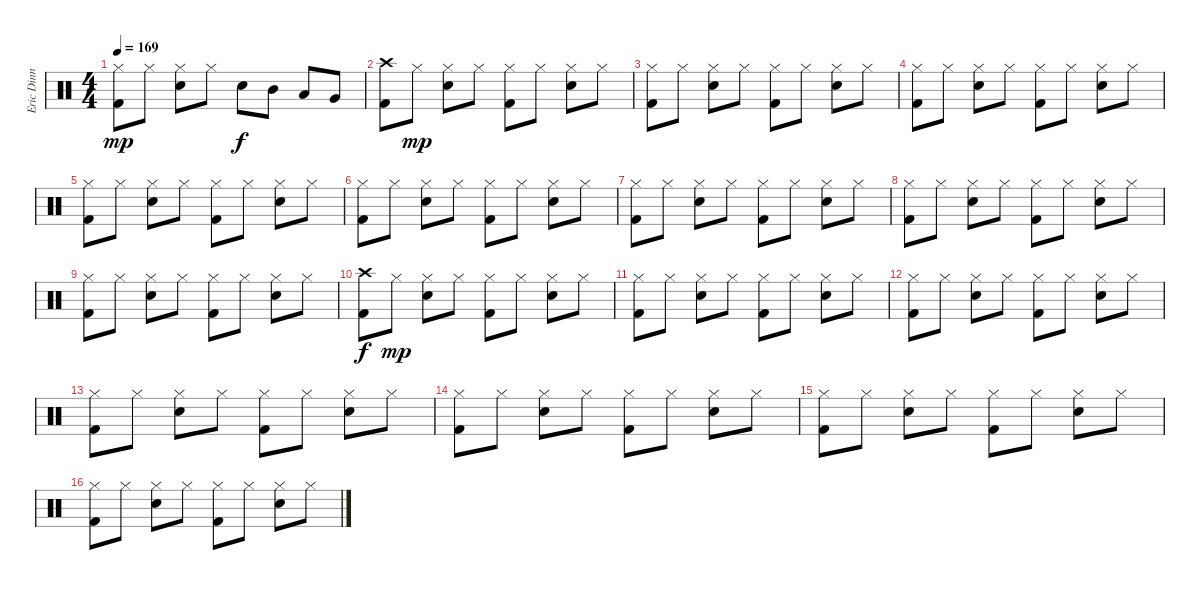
\track ("Eric Dinn" "Eric Dinn") {instrument percussion}
\staff {score}
\articulation defaults
\ts (4 4)
\tempo 169
\clef neutral
\ks c
("Hi-Hat (closed)" "Kick (hit) 2").8{dy mp} "Hi-Hat (closed)".8 ("Hi-Hat (closed)" "Snare (hit) 2").8 "Hi-Hat (closed)".8 "Snare (hit) 2".8{dy f} "Mid Tom (hit)".8 "Low Tom (hit)".8 "Very Low Tom (hit)".8 |
("Crash high (hit)" "Kick (hit) 2").8 "Hi-Hat (closed)".8{dy mp} ("Hi-Hat (closed)" "Snare (hit) 2").8 "Hi-Hat (closed)".8 ("Hi-Hat (closed)" "Kick (hit) 2").8 "Hi-Hat (closed)".8 ("Hi-Hat (closed)" "Snare (hit) 2").8 "Hi-Hat (closed)".8 |
("Hi-Hat (closed)" "Kick (hit) 2").8 "Hi-Hat (closed)".8 ("Hi-Hat (closed)" "Snare (hit) 2").8 "Hi-Hat (closed)".8 ("Hi-Hat (closed)" "Kick (hit) 2").8 "Hi-Hat (closed)".8 ("Hi-Hat (closed)" "Snare (hit) 2").8 "Hi-Hat (closed)".8 |
("Hi-Hat (closed)" "Kick (hit) 2").8 "Hi-Hat (closed)".8 ("Hi-Hat (closed)" "Snare (hit) 2").8 "Hi-Hat (closed)".8 ("Hi-Hat (closed)" "Kick (hit) 2").8 "Hi-Hat (closed)".8 ("Hi-Hat (closed)" "Snare (hit) 2").8 "Hi-Hat (closed)".8 |
("Hi-Hat (closed)" "Kick (hit) 2").8 "Hi-Hat (closed)".8 ("Hi-Hat (closed)" "Snare (hit) 2").8 "Hi-Hat (closed)".8 ("Hi-Hat (closed)" "Kick (hit) 2").8 "Hi-Hat (closed)".8 ("Hi-Hat (closed)" "Snare (hit) 2").8 "Hi-Hat (closed)".8 |
("Hi-Hat (closed)" "Kick (hit) 2").8 "Hi-Hat (closed)".8 ("Hi-Hat (closed)" "Snare (hit) 2").8 "Hi-Hat (closed)".8 ("Hi-Hat (closed)" "Kick (hit) 2").8 "Hi-Hat (closed)".8 ("Hi-Hat (closed)" "Snare (hit) 2").8 "Hi-Hat (closed)".8 |
("Hi-Hat (closed)" "Kick (hit) 2").8 "Hi-Hat (closed)".8 ("Hi-Hat (closed)" "Snare (hit) 2").8 "Hi-Hat (closed)".8 ("Hi-Hat (closed)" "Kick (hit) 2").8 "Hi-Hat (closed)".8 ("Hi-Hat (closed)" "Snare (hit) 2").8 "Hi-Hat (closed)".8 |
("Hi-Hat (closed)" "Kick (hit) 2").8 "Hi-Hat (closed)".8 ("Hi-Hat (closed)" "Snare (hit) 2").8 "Hi-Hat (closed)".8 ("Hi-Hat (closed)" "Kick (hit) 2").8 "Hi-Hat (closed)".8 ("Hi-Hat (closed)" "Snare (hit) 2").8 "Hi-Hat (closed)".8 |
("Hi-Hat (closed)" "Kick (hit) 2").8 "Hi-Hat (closed)".8 ("Hi-Hat (closed)" "Snare (hit) 2").8 "Hi-Hat (closed)".8 ("Hi-Hat (closed)" "Kick (hit) 2").8 "Hi-Hat (closed)".8 ("Hi-Hat (closed)" "Snare (hit) 2").8 "Hi-Hat (closed)".8 |
("Crash high (hit)" "Kick (hit) 2").8{dy f} "Hi-Hat (closed)".8{dy mp} ("Hi-Hat (closed)" "Snare (hit) 2").8 "Hi-Hat (closed)".8 ("Hi-Hat (closed)" "Kick (hit) 2").8 "Hi-Hat (closed)".8 ("Hi-Hat (closed)" "Snare (hit) 2").8 "Hi-Hat (closed)".8 |
("Hi-Hat (closed)" "Kick (hit) 2").8 "Hi-Hat (closed)".8 ("Hi-Hat (closed)" "Snare (hit) 2").8 "Hi-Hat (closed)".8 ("Hi-Hat (closed)" "Kick (hit) 2").8 "Hi-Hat (closed)".8 ("Hi-Hat (closed)" "Snare (hit) 2").8 "Hi-Hat (closed)".8 |
("Hi-Hat (closed)" "Kick (hit) 2").8 "Hi-Hat (closed)".8 ("Hi-Hat (closed)" "Snare (hit) 2").8 "Hi-Hat (closed)".8 ("Hi-Hat (closed)" "Kick (hit) 2").8 "Hi-Hat (closed)".8 ("Hi-Hat (closed)" "Snare (hit) 2").8 "Hi-Hat (closed)".8 |
("Hi-Hat (closed)" "Kick (hit) 2").8 "Hi-Hat (closed)".8 ("Hi-Hat (closed)" "Snare (hit) 2").8 "Hi-Hat (closed)".8 ("Hi-Hat (closed)" "Kick (hit) 2").8 "Hi-Hat (closed)".8 ("Hi-Hat (closed)" "Snare (hit) 2").8 "Hi-Hat (closed)".8 |
("Hi-Hat (closed)" "Kick (hit) 2").8 "Hi-Hat (closed)".8 ("Hi-Hat (closed)" "Snare (hit) 2").8 "Hi-Hat (closed)".8 ("Hi-Hat (closed)" "Kick (hit) 2").8 "Hi-Hat (closed)".8 ("Hi-Hat (closed)" "Snare (hit) 2").8 "Hi-Hat (closed)".8 |
("Hi-Hat (closed)" "Kick (hit) 2").8 "Hi-Hat (closed)".8 ("Hi-Hat (closed)" "Snare (hit) 2").8 "Hi-Hat (closed)".8 ("Hi-Hat (closed)" "Kick (hit) 2").8 "Hi-Hat (closed)".8 ("Hi-Hat (closed)" "Snare (hit) 2").8 "Hi-Hat (closed)".8 |
("Hi-Hat (closed)" "Kick (hit) 2").8 "Hi-Hat (closed)".8 ("Hi-Hat (closed)" "Snare (hit) 2").8 "Hi-Hat (closed)".8 ("Hi-Hat (closed)" "Kick (hit) 2").8 "Hi-Hat (closed)".8 ("Hi-Hat (closed)" "Snare (hit) 2").8 "Hi-Hat (closed)".8
